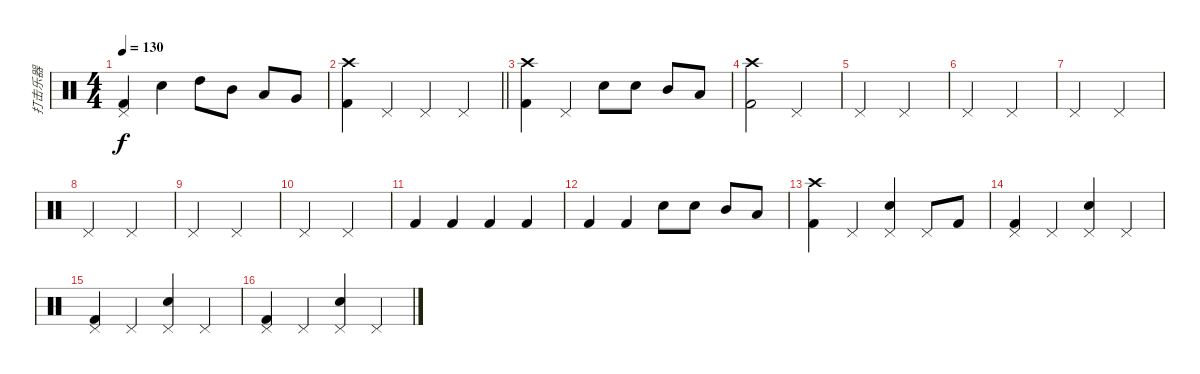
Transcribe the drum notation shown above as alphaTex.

\track ("打击乐器" "打击乐器") {instrument percussion}
\staff {score}
\articulation defaults
\ts (4 4)
\tempo 130
\clef neutral
\ks c
("Pedal Hi-Hat (hit)" "Kick (hit) 2").4{dy f} "Snare (hit) 2".4 "High Tom (hit)".8 "Mid Tom (hit)".8 "Low Tom (hit)".8 "Very Low Tom (hit)".8 |
\barLineRight lightlight
("Crash high (hit)" "Kick (hit) 2").4 "Pedal Hi-Hat (hit)".4 "Pedal Hi-Hat (hit)".4 "Pedal Hi-Hat (hit)".4 |
("Crash high (hit)" "Kick (hit) 2").4 "Pedal Hi-Hat (hit)".4 "Snare (hit) 2".8 "Snare (hit) 2".8 "Mid Tom (hit)".8 "Low Tom (hit)".8 |
("Kick (hit) 2" "Crash high (hit)").2 "Pedal Hi-Hat (hit)".2 |
"Pedal Hi-Hat (hit)".2 "Pedal Hi-Hat (hit)".2 |
"Pedal Hi-Hat (hit)".2 "Pedal Hi-Hat (hit)".2 |
"Pedal Hi-Hat (hit)".2 "Pedal Hi-Hat (hit)".2 |
"Pedal Hi-Hat (hit)".2 "Pedal Hi-Hat (hit)".2 |
"Pedal Hi-Hat (hit)".2 "Pedal Hi-Hat (hit)".2 |
"Pedal Hi-Hat (hit)".2 "Pedal Hi-Hat (hit)".2 |
"Kick (hit) 2".4 "Kick (hit) 2".4 "Kick (hit) 2".4 "Kick (hit) 2".4 |
"Kick (hit) 2".4 "Kick (hit) 2".4 "Snare (hit) 2".8 "Snare (hit) 2".8 "Mid Tom (hit)".8 "Low Tom (hit)".8 |
("Crash high (hit)" "Kick (hit) 2").4 "Pedal Hi-Hat (hit)".4 ("Pedal Hi-Hat (hit)" "Snare (hit) 2").4 "Pedal Hi-Hat (hit)".8 "Kick (hit) 2".8 |
("Pedal Hi-Hat (hit)" "Kick (hit) 2").4 "Pedal Hi-Hat (hit)".4 ("Pedal Hi-Hat (hit)" "Snare (hit) 2").4 "Pedal Hi-Hat (hit)".4 |
("Pedal Hi-Hat (hit)" "Kick (hit) 2").4 "Pedal Hi-Hat (hit)".4 ("Pedal Hi-Hat (hit)" "Snare (hit) 2").4 "Pedal Hi-Hat (hit)".4 |
("Pedal Hi-Hat (hit)" "Kick (hit) 2").4 "Pedal Hi-Hat (hit)".4 ("Pedal Hi-Hat (hit)" "Snare (hit) 2").4 "Pedal Hi-Hat (hit)".4
